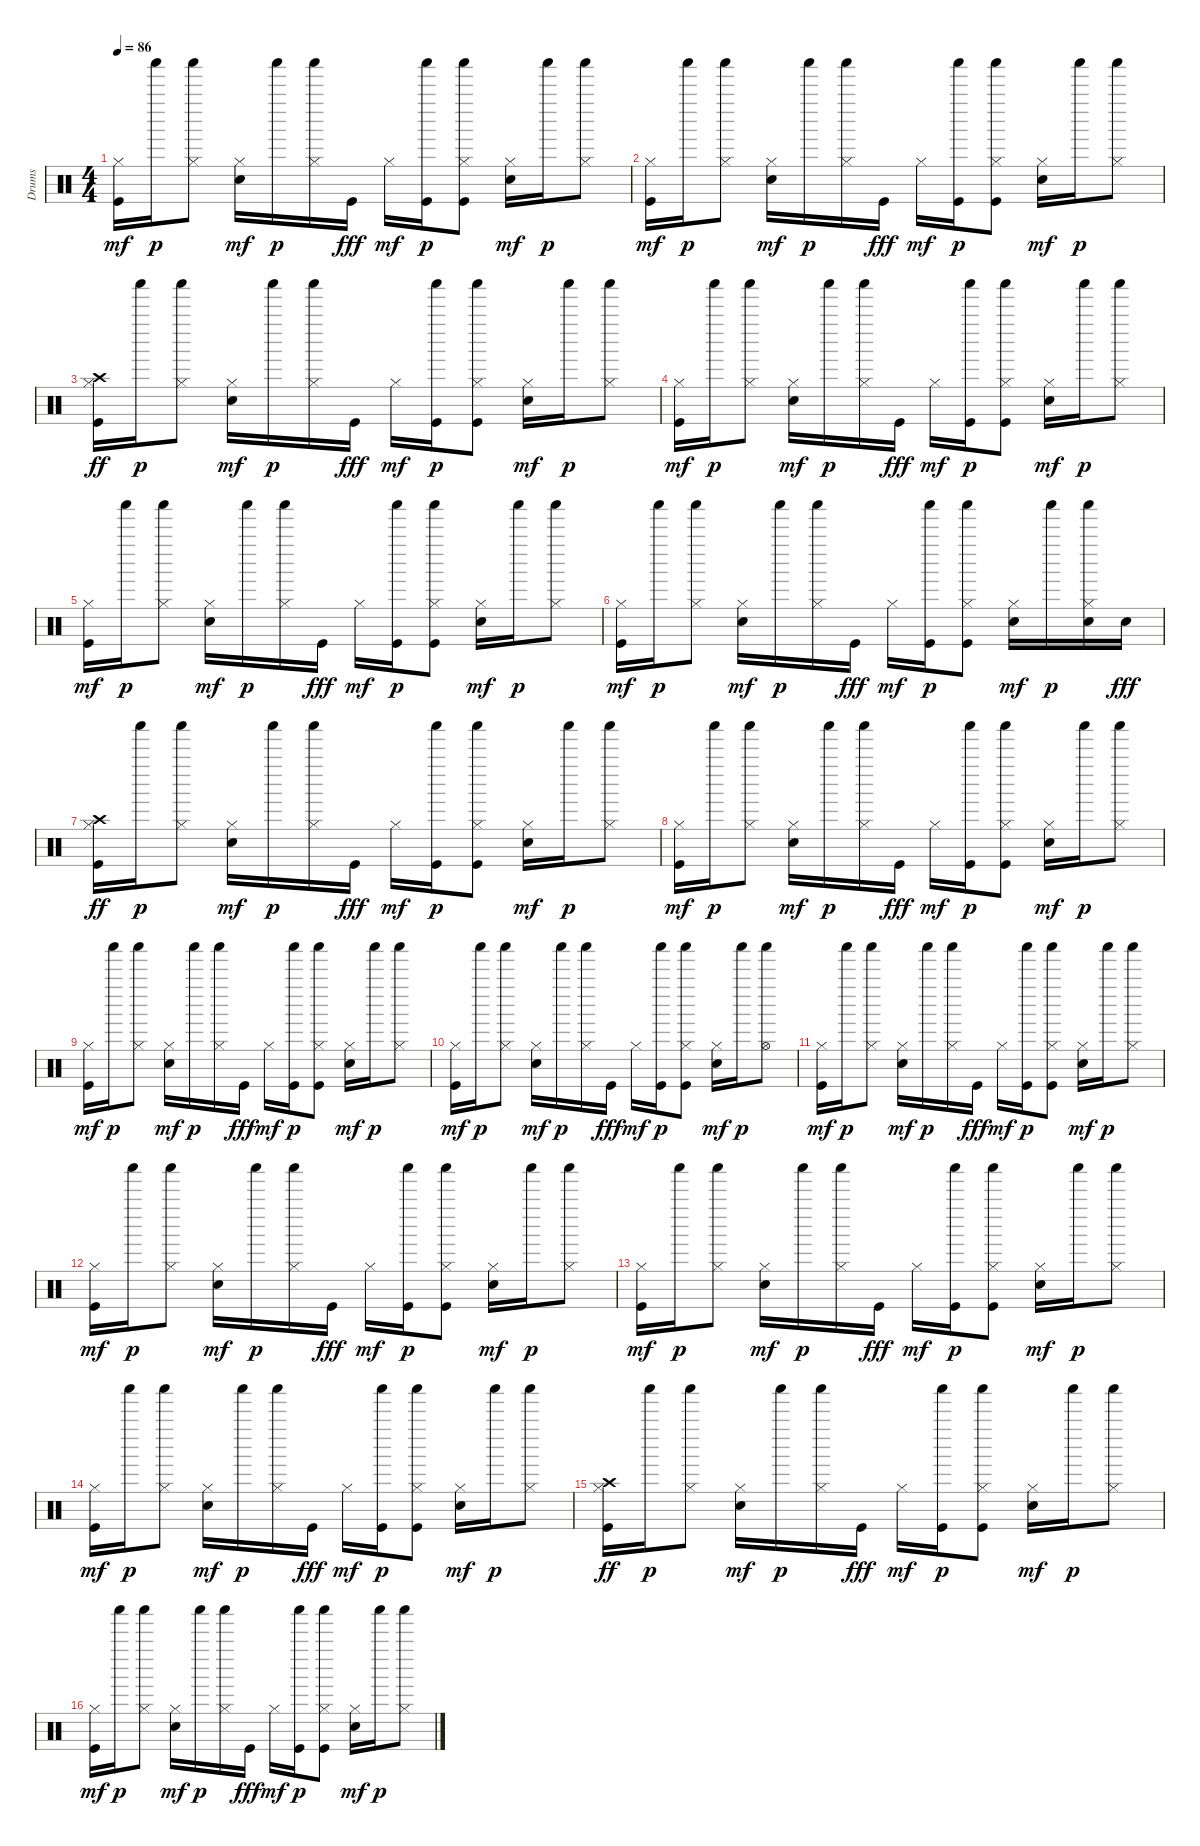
\track ("Drums               " "Drums     ") {instrument percussion}
\staff {score}
\articulation defaults
\ts (4 4)
\tempo 86
\clef neutral
\ks c
("Kick (hit)" "Hi-Hat (closed)").16{dy mf} "Shaker (hit)".16{dy p} ("Hi-Hat (closed)" "Shaker (hit)").8 ("Snare (hit) 2" "Hi-Hat (closed)").16{dy mf} "Shaker (hit)".16{dy p} ("Hi-Hat (closed)" "Shaker (hit)").16 "Kick (hit)".16{dy fff} "Hi-Hat (closed)".16{dy mf} ("Kick (hit)" "Shaker (hit)").16{dy p} ("Kick (hit)" "Hi-Hat (closed)" "Shaker (hit)").8 ("Snare (hit) 2" "Hi-Hat (closed)").16{dy mf} "Shaker (hit)".16{dy p} ("Hi-Hat (closed)" "Shaker (hit)").8 |
("Kick (hit)" "Hi-Hat (closed)").16{dy mf} "Shaker (hit)".16{dy p} ("Hi-Hat (closed)" "Shaker (hit)").8 ("Snare (hit) 2" "Hi-Hat (closed)").16{dy mf} "Shaker (hit)".16{dy p} ("Hi-Hat (closed)" "Shaker (hit)").16 "Kick (hit)".16{dy fff} "Hi-Hat (closed)".16{dy mf} ("Kick (hit)" "Shaker (hit)").16{dy p} ("Kick (hit)" "Hi-Hat (closed)" "Shaker (hit)").8 ("Snare (hit) 2" "Hi-Hat (closed)").16{dy mf} "Shaker (hit)".16{dy p} ("Hi-Hat (closed)" "Shaker (hit)").8 |
("Kick (hit)" "Hi-Hat (closed)" "Crash high (hit)").16{dy ff} "Shaker (hit)".16{dy p} ("Hi-Hat (closed)" "Shaker (hit)").8 ("Snare (hit) 2" "Hi-Hat (closed)").16{dy mf} "Shaker (hit)".16{dy p} ("Hi-Hat (closed)" "Shaker (hit)").16 "Kick (hit)".16{dy fff} "Hi-Hat (closed)".16{dy mf} ("Kick (hit)" "Shaker (hit)").16{dy p} ("Kick (hit)" "Hi-Hat (closed)" "Shaker (hit)").8 ("Snare (hit) 2" "Hi-Hat (closed)").16{dy mf} "Shaker (hit)".16{dy p} ("Hi-Hat (closed)" "Shaker (hit)").8 |
("Kick (hit)" "Hi-Hat (closed)").16{dy mf} "Shaker (hit)".16{dy p} ("Hi-Hat (closed)" "Shaker (hit)").8 ("Snare (hit) 2" "Hi-Hat (closed)").16{dy mf} "Shaker (hit)".16{dy p} ("Hi-Hat (closed)" "Shaker (hit)").16 "Kick (hit)".16{dy fff} "Hi-Hat (closed)".16{dy mf} ("Kick (hit)" "Shaker (hit)").16{dy p} ("Kick (hit)" "Hi-Hat (closed)" "Shaker (hit)").8 ("Snare (hit) 2" "Hi-Hat (closed)").16{dy mf} "Shaker (hit)".16{dy p} ("Hi-Hat (closed)" "Shaker (hit)").8 |
("Kick (hit)" "Hi-Hat (closed)").16{dy mf} "Shaker (hit)".16{dy p} ("Hi-Hat (closed)" "Shaker (hit)").8 ("Snare (hit) 2" "Hi-Hat (closed)").16{dy mf} "Shaker (hit)".16{dy p} ("Hi-Hat (closed)" "Shaker (hit)").16 "Kick (hit)".16{dy fff} "Hi-Hat (closed)".16{dy mf} ("Kick (hit)" "Shaker (hit)").16{dy p} ("Kick (hit)" "Hi-Hat (closed)" "Shaker (hit)").8 ("Snare (hit) 2" "Hi-Hat (closed)").16{dy mf} "Shaker (hit)".16{dy p} ("Hi-Hat (closed)" "Shaker (hit)").8 |
("Kick (hit)" "Hi-Hat (closed)").16{dy mf} "Shaker (hit)".16{dy p} ("Hi-Hat (closed)" "Shaker (hit)").8 ("Snare (hit) 2" "Hi-Hat (closed)").16{dy mf} "Shaker (hit)".16{dy p} ("Hi-Hat (closed)" "Shaker (hit)").16 "Kick (hit)".16{dy fff} "Hi-Hat (closed)".16{dy mf} ("Kick (hit)" "Shaker (hit)").16{dy p} ("Kick (hit)" "Hi-Hat (closed)" "Shaker (hit)").8 ("Snare (hit) 2" "Hi-Hat (closed)").16{dy mf} "Shaker (hit)".16{dy p} ("Snare (hit) 2" "Hi-Hat (closed)" "Shaker (hit)").16 "Snare (hit) 2".16{dy fff} |
("Kick (hit)" "Hi-Hat (closed)" "Crash high (hit)").16{dy ff} "Shaker (hit)".16{dy p} ("Hi-Hat (closed)" "Shaker (hit)").8 ("Snare (hit) 2" "Hi-Hat (closed)").16{dy mf} "Shaker (hit)".16{dy p} ("Hi-Hat (closed)" "Shaker (hit)").16 "Kick (hit)".16{dy fff} "Hi-Hat (closed)".16{dy mf} ("Kick (hit)" "Shaker (hit)").16{dy p} ("Kick (hit)" "Hi-Hat (closed)" "Shaker (hit)").8 ("Snare (hit) 2" "Hi-Hat (closed)").16{dy mf} "Shaker (hit)".16{dy p} ("Hi-Hat (closed)" "Shaker (hit)").8 |
("Kick (hit)" "Hi-Hat (closed)").16{dy mf} "Shaker (hit)".16{dy p} ("Hi-Hat (closed)" "Shaker (hit)").8 ("Snare (hit) 2" "Hi-Hat (closed)").16{dy mf} "Shaker (hit)".16{dy p} ("Hi-Hat (closed)" "Shaker (hit)").16 "Kick (hit)".16{dy fff} "Hi-Hat (closed)".16{dy mf} ("Kick (hit)" "Shaker (hit)").16{dy p} ("Kick (hit)" "Hi-Hat (closed)" "Shaker (hit)").8 ("Snare (hit) 2" "Hi-Hat (closed)").16{dy mf} "Shaker (hit)".16{dy p} ("Hi-Hat (closed)" "Shaker (hit)").8 |
("Kick (hit)" "Hi-Hat (closed)").16{dy mf} "Shaker (hit)".16{dy p} ("Hi-Hat (closed)" "Shaker (hit)").8 ("Snare (hit) 2" "Hi-Hat (closed)").16{dy mf} "Shaker (hit)".16{dy p} ("Hi-Hat (closed)" "Shaker (hit)").16 "Kick (hit)".16{dy fff} "Hi-Hat (closed)".16{dy mf} ("Kick (hit)" "Shaker (hit)").16{dy p} ("Kick (hit)" "Hi-Hat (closed)" "Shaker (hit)").8 ("Snare (hit) 2" "Hi-Hat (closed)").16{dy mf} "Shaker (hit)".16{dy p} ("Hi-Hat (closed)" "Shaker (hit)").8 |
("Kick (hit)" "Hi-Hat (closed)").16{dy mf} "Shaker (hit)".16{dy p} ("Hi-Hat (closed)" "Shaker (hit)").8 ("Snare (hit) 2" "Hi-Hat (closed)").16{dy mf} "Shaker (hit)".16{dy p} ("Hi-Hat (closed)" "Shaker (hit)").16 "Kick (hit)".16{dy fff} "Hi-Hat (closed)".16{dy mf} ("Kick (hit)" "Shaker (hit)").16{dy p} ("Kick (hit)" "Hi-Hat (closed)" "Shaker (hit)").8 ("Snare (hit) 2" "Hi-Hat (closed)").16{dy mf} "Shaker (hit)".16{dy p} ("Hi-Hat (open)" "Shaker (hit)").8 |
("Kick (hit)" "Hi-Hat (closed)").16{dy mf} "Shaker (hit)".16{dy p} ("Hi-Hat (closed)" "Shaker (hit)").8 ("Snare (hit) 2" "Hi-Hat (closed)").16{dy mf} "Shaker (hit)".16{dy p} ("Hi-Hat (closed)" "Shaker (hit)").16 "Kick (hit)".16{dy fff} "Hi-Hat (closed)".16{dy mf} ("Kick (hit)" "Shaker (hit)").16{dy p} ("Kick (hit)" "Hi-Hat (closed)" "Shaker (hit)").8 ("Snare (hit) 2" "Hi-Hat (closed)").16{dy mf} "Shaker (hit)".16{dy p} ("Hi-Hat (closed)" "Shaker (hit)").8 |
("Kick (hit)" "Hi-Hat (closed)").16{dy mf} "Shaker (hit)".16{dy p} ("Hi-Hat (closed)" "Shaker (hit)").8 ("Snare (hit) 2" "Hi-Hat (closed)").16{dy mf} "Shaker (hit)".16{dy p} ("Hi-Hat (closed)" "Shaker (hit)").16 "Kick (hit)".16{dy fff} "Hi-Hat (closed)".16{dy mf} ("Kick (hit)" "Shaker (hit)").16{dy p} ("Kick (hit)" "Hi-Hat (closed)" "Shaker (hit)").8 ("Snare (hit) 2" "Hi-Hat (closed)").16{dy mf} "Shaker (hit)".16{dy p} ("Hi-Hat (closed)" "Shaker (hit)").8 |
("Kick (hit)" "Hi-Hat (closed)").16{dy mf} "Shaker (hit)".16{dy p} ("Hi-Hat (closed)" "Shaker (hit)").8 ("Snare (hit) 2" "Hi-Hat (closed)").16{dy mf} "Shaker (hit)".16{dy p} ("Hi-Hat (closed)" "Shaker (hit)").16 "Kick (hit)".16{dy fff} "Hi-Hat (closed)".16{dy mf} ("Kick (hit)" "Shaker (hit)").16{dy p} ("Kick (hit)" "Hi-Hat (closed)" "Shaker (hit)").8 ("Snare (hit) 2" "Hi-Hat (closed)").16{dy mf} "Shaker (hit)".16{dy p} ("Hi-Hat (closed)" "Shaker (hit)").8 |
("Kick (hit)" "Hi-Hat (closed)").16{dy mf} "Shaker (hit)".16{dy p} ("Hi-Hat (closed)" "Shaker (hit)").8 ("Snare (hit) 2" "Hi-Hat (closed)").16{dy mf} "Shaker (hit)".16{dy p} ("Hi-Hat (closed)" "Shaker (hit)").16 "Kick (hit)".16{dy fff} "Hi-Hat (closed)".16{dy mf} ("Kick (hit)" "Shaker (hit)").16{dy p} ("Kick (hit)" "Hi-Hat (closed)" "Shaker (hit)").8 ("Snare (hit) 2" "Hi-Hat (closed)").16{dy mf} "Shaker (hit)".16{dy p} ("Hi-Hat (closed)" "Shaker (hit)").8 |
("Kick (hit)" "Hi-Hat (closed)" "Crash high (hit)").16{dy ff} "Shaker (hit)".16{dy p} ("Hi-Hat (closed)" "Shaker (hit)").8 ("Snare (hit) 2" "Hi-Hat (closed)").16{dy mf} "Shaker (hit)".16{dy p} ("Hi-Hat (closed)" "Shaker (hit)").16 "Kick (hit)".16{dy fff} "Hi-Hat (closed)".16{dy mf} ("Kick (hit)" "Shaker (hit)").16{dy p} ("Kick (hit)" "Hi-Hat (closed)" "Shaker (hit)").8 ("Snare (hit) 2" "Hi-Hat (closed)").16{dy mf} "Shaker (hit)".16{dy p} ("Hi-Hat (closed)" "Shaker (hit)").8 |
("Kick (hit)" "Hi-Hat (closed)").16{dy mf} "Shaker (hit)".16{dy p} ("Hi-Hat (closed)" "Shaker (hit)").8 ("Snare (hit) 2" "Hi-Hat (closed)").16{dy mf} "Shaker (hit)".16{dy p} ("Hi-Hat (closed)" "Shaker (hit)").16 "Kick (hit)".16{dy fff} "Hi-Hat (closed)".16{dy mf} ("Kick (hit)" "Shaker (hit)").16{dy p} ("Kick (hit)" "Hi-Hat (closed)" "Shaker (hit)").8 ("Snare (hit) 2" "Hi-Hat (closed)").16{dy mf} "Shaker (hit)".16{dy p} ("Hi-Hat (closed)" "Shaker (hit)").8
